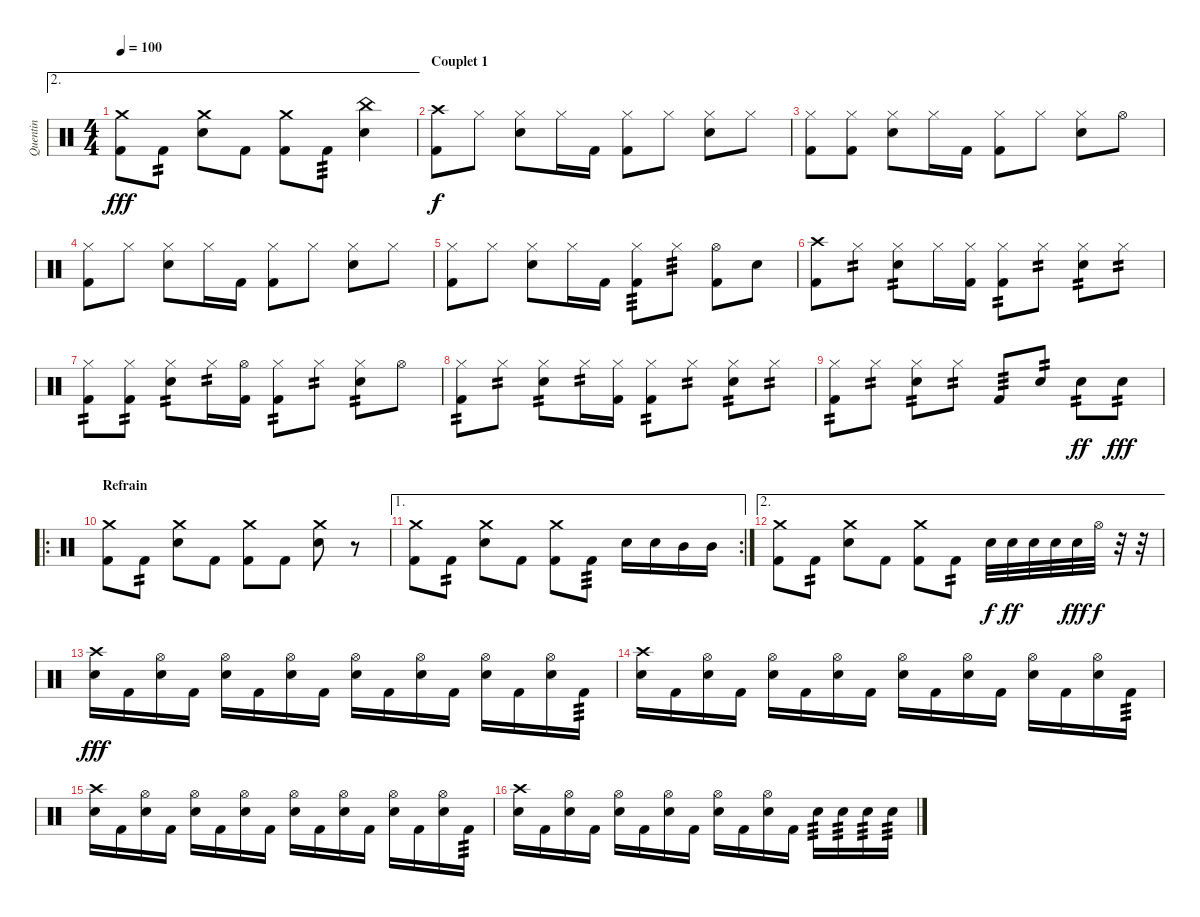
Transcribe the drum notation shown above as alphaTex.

\track ("Quentin" "Quentin") {instrument percussion}
\staff {score}
\articulation defaults
\ae 2
\ts (4 4)
\tempo 100
\clef neutral
\ks c
("Crash medium (hit)" "Kick (hit) 2").8{dy fff} "Kick (hit) 2".8{tp 2} ("Crash medium (hit)" "Electric Snare (hit)").8 "Kick (hit) 2".8 ("Crash medium (hit)" "Kick (hit) 2").8 "Kick (hit) 2".8{tp 3} ("China (hit)" "Electric Snare (hit)").4 |
\section ("" "Couplet 1")
("Crash high (hit)" "Kick (hit) 2").8{dy f} "Hi-Hat (closed)".8 ("Hi-Hat (closed)" "Snare (hit) 2").8 "Hi-Hat (closed)".16 "Kick (hit) 2".16 ("Hi-Hat (closed)" "Kick (hit) 2").8 "Hi-Hat (closed)".8 ("Hi-Hat (closed)" "Snare (hit) 2").8 "Hi-Hat (closed)".8 |
("Hi-Hat (closed)" "Kick (hit) 2").8 ("Hi-Hat (closed)" "Kick (hit) 2").8 ("Hi-Hat (closed)" "Snare (hit) 2").8 "Hi-Hat (closed)".16 "Kick (hit) 2".16 ("Hi-Hat (closed)" "Kick (hit) 2").8 "Hi-Hat (closed)".8 ("Hi-Hat (closed)" "Snare (hit) 2").8 "Hi-Hat (open)".8 |
("Hi-Hat (closed)" "Kick (hit) 2").8 "Hi-Hat (closed)".8 ("Hi-Hat (closed)" "Snare (hit) 2").8 "Hi-Hat (closed)".16 "Kick (hit) 2".16 ("Hi-Hat (closed)" "Kick (hit) 2").8 "Hi-Hat (closed)".8 ("Hi-Hat (closed)" "Snare (hit) 2").8 "Hi-Hat (closed)".8 |
("Hi-Hat (closed)" "Kick (hit) 2").8 "Hi-Hat (closed)".8 ("Hi-Hat (closed)" "Snare (hit) 2").8 "Hi-Hat (closed)".16 "Kick (hit) 2".16 ("Hi-Hat (closed)" "Kick (hit) 2").8{tp 3} "Hi-Hat (closed)".8{tp 3} ("Hi-Hat (open)" "Kick (hit) 2").8 "Snare (hit) 2".8 |
("Crash high (hit)" "Kick (hit) 2").8 "Hi-Hat (closed)".8{tp 2} ("Hi-Hat (closed)" "Snare (hit) 2").8{tp 2} "Hi-Hat (closed)".16 ("Hi-Hat (closed)" "Kick (hit) 2").16 ("Hi-Hat (closed)" "Kick (hit) 2").8{tp 2} "Hi-Hat (closed)".8{tp 2} ("Hi-Hat (closed)" "Snare (hit) 2").8{tp 2} "Hi-Hat (closed)".8{tp 2} |
("Hi-Hat (closed)" "Kick (hit) 2").8{tp 2} ("Hi-Hat (closed)" "Kick (hit) 2").8{tp 2} ("Hi-Hat (closed)" "Snare (hit) 2").8{tp 2} "Hi-Hat (closed)".16{tp 2} ("Hi-Hat (open)" "Kick (hit) 2").16 ("Hi-Hat (closed)" "Kick (hit) 2").8{tp 2} "Hi-Hat (closed)".8{tp 2} ("Hi-Hat (closed)" "Snare (hit) 2").8{tp 2} "Hi-Hat (open)".8 |
("Hi-Hat (closed)" "Kick (hit) 2").8{tp 2} "Hi-Hat (closed)".8{tp 2} ("Hi-Hat (closed)" "Snare (hit) 2").8{tp 2} "Hi-Hat (closed)".16{tp 2} ("Hi-Hat (closed)" "Kick (hit) 2").16 ("Hi-Hat (closed)" "Kick (hit) 2").8{tp 2} "Hi-Hat (closed)".8{tp 2} ("Hi-Hat (closed)" "Snare (hit) 2").8{tp 2} "Hi-Hat (closed)".8{tp 2} |
("Hi-Hat (closed)" "Kick (hit) 2").8{tp 2} "Hi-Hat (closed)".8{tp 2} ("Hi-Hat (closed)" "Snare (hit) 2").8{tp 2} "Hi-Hat (closed)".8{tp 2} "Kick (hit) 2".8{tp 3} "Snare (hit) 2".8{tp 2} "Snare (hit) 2".8{tp 2 dy ff} "Electric Snare (hit)".8{tp 2 dy fff} |
\ro
\section ("" "Refrain")
("Crash medium (hit)" "Kick (hit) 2").8 "Kick (hit) 2".8{tp 2} ("Crash medium (hit)" "Electric Snare (hit)").8 "Kick (hit) 2".8 ("Crash medium (hit)" "Kick (hit) 2").8 "Kick (hit) 2".8 ("Crash medium (hit)" "Electric Snare (hit)").8 r.8 |
\ae 1
\rc 2
("Crash medium (hit)" "Kick (hit) 2").8 "Kick (hit) 2".8{tp 2} ("Crash medium (hit)" "Electric Snare (hit)").8 "Kick (hit) 2".8 ("Crash medium (hit)" "Kick (hit) 2").8 "Kick (hit) 2".8{tp 3} "Electric Snare (hit)".16 "Electric Snare (hit)".16 "Mid Tom (hit)".16 "Mid Tom (hit)".16 |
\ae 2
("Crash medium (hit)" "Kick (hit) 2").8 "Kick (hit) 2".8{tp 2} ("Crash medium (hit)" "Electric Snare (hit)").8 "Kick (hit) 2".8 ("Crash medium (hit)" "Kick (hit) 2").8 "Kick (hit) 2".8{tp 2} "Electric Snare (hit)".32{dy f} "Electric Snare (hit)".32{dy ff} "Electric Snare (hit)".32 "Electric Snare (hit)".32 "Electric Snare (hit)".32{dy fff} "Hi-Hat (open)".32{dy f} r.32 r.32 |
("Crash high (hit)" "Electric Snare (hit)").16{dy fff} "Kick (hit) 2".16 ("Hi-Hat (open)" "Electric Snare (hit)").16 "Kick (hit) 2".16 ("Hi-Hat (open)" "Electric Snare (hit)").16 "Kick (hit) 2".16 ("Hi-Hat (open)" "Electric Snare (hit)").16 "Kick (hit) 2".16 ("Hi-Hat (open)" "Electric Snare (hit)").16 "Kick (hit) 2".16 ("Hi-Hat (open)" "Electric Snare (hit)").16 "Kick (hit) 2".16 ("Hi-Hat (open)" "Electric Snare (hit)").16 "Kick (hit) 2".16 ("Hi-Hat (open)" "Electric Snare (hit)").16 "Kick (hit) 2".16{tp 3} |
("Crash high (hit)" "Electric Snare (hit)").16 "Kick (hit) 2".16 ("Hi-Hat (open)" "Electric Snare (hit)").16 "Kick (hit) 2".16 ("Hi-Hat (open)" "Electric Snare (hit)").16 "Kick (hit) 2".16 ("Hi-Hat (open)" "Electric Snare (hit)").16 "Kick (hit) 2".16 ("Hi-Hat (open)" "Electric Snare (hit)").16 "Kick (hit) 2".16 ("Hi-Hat (open)" "Electric Snare (hit)").16 "Kick (hit) 2".16 ("Hi-Hat (open)" "Electric Snare (hit)").16 "Kick (hit) 2".16 ("Hi-Hat (open)" "Electric Snare (hit)").16 "Kick (hit) 2".16{tp 3} |
("Crash high (hit)" "Electric Snare (hit)").16 "Kick (hit) 2".16 ("Hi-Hat (open)" "Electric Snare (hit)").16 "Kick (hit) 2".16 ("Hi-Hat (open)" "Electric Snare (hit)").16 "Kick (hit) 2".16 ("Hi-Hat (open)" "Electric Snare (hit)").16 "Kick (hit) 2".16 ("Hi-Hat (open)" "Electric Snare (hit)").16 "Kick (hit) 2".16 ("Hi-Hat (open)" "Electric Snare (hit)").16 "Kick (hit) 2".16 ("Hi-Hat (open)" "Electric Snare (hit)").16 "Kick (hit) 2".16 ("Hi-Hat (open)" "Electric Snare (hit)").16 "Kick (hit) 2".16{tp 3} |
("Crash high (hit)" "Electric Snare (hit)").16 "Kick (hit) 2".16 ("Hi-Hat (open)" "Electric Snare (hit)").16 "Kick (hit) 2".16 ("Hi-Hat (open)" "Electric Snare (hit)").16 "Kick (hit) 2".16 ("Hi-Hat (open)" "Electric Snare (hit)").16 "Kick (hit) 2".16 ("Hi-Hat (open)" "Electric Snare (hit)").16 "Kick (hit) 2".16 ("Hi-Hat (open)" "Electric Snare (hit)").16 "Kick (hit) 2".16 "Electric Snare (hit)".16{tp 3} "Electric Snare (hit)".16{tp 3} "Electric Snare (hit)".16{tp 3} "Electric Snare (hit)".16{tp 3}
